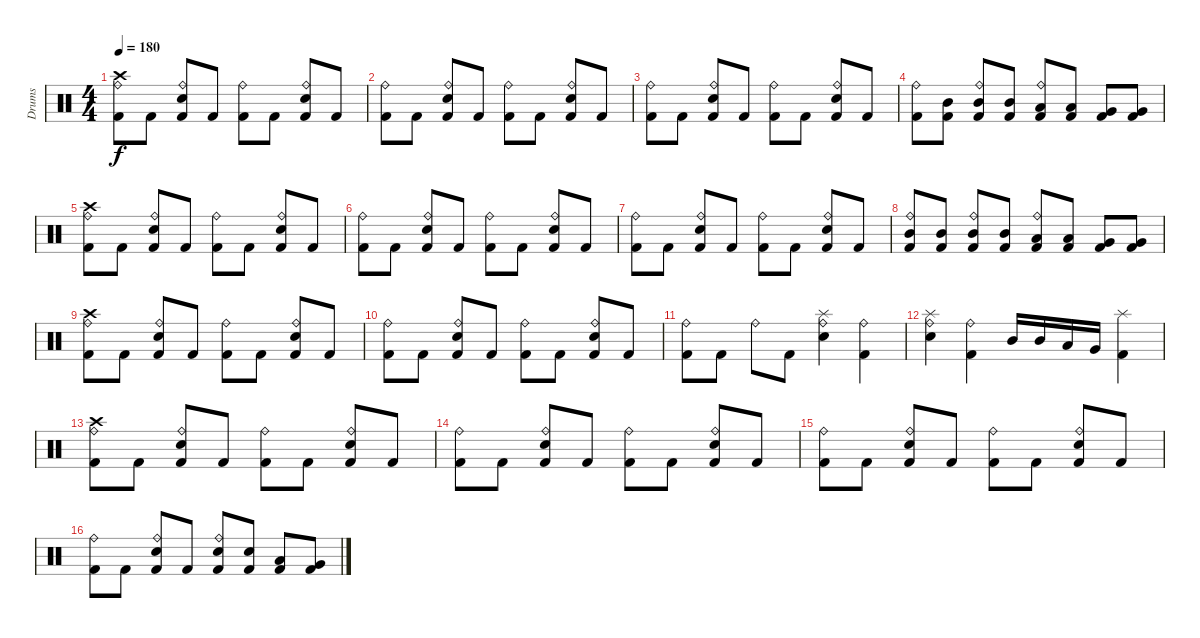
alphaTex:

\track ("Drums" "Drums") {instrument percussion}
\staff {score}
\articulation defaults
\ts (4 4)
\tempo 180
\clef neutral
\ks c
("Kick (hit) 2" "Crash high (hit)" "Ride (bell)").8{dy f} "Kick (hit) 2".8 ("Kick (hit) 2" "Electric Snare (hit)" "Ride (bell)").8 "Kick (hit) 2".8 ("Kick (hit) 2" "Ride (bell)").8 "Kick (hit) 2".8 ("Kick (hit) 2" "Electric Snare (hit)" "Ride (bell)").8 "Kick (hit) 2".8 |
("Kick (hit) 2" "Ride (bell)").8 "Kick (hit) 2".8 ("Kick (hit) 2" "Electric Snare (hit)" "Ride (bell)").8 "Kick (hit) 2".8 ("Kick (hit) 2" "Ride (bell)").8 "Kick (hit) 2".8 ("Kick (hit) 2" "Electric Snare (hit)" "Ride (bell)").8 "Kick (hit) 2".8 |
("Kick (hit) 2" "Ride (bell)").8 "Kick (hit) 2".8 ("Kick (hit) 2" "Electric Snare (hit)" "Ride (bell)").8 "Kick (hit) 2".8 ("Kick (hit) 2" "Ride (bell)").8 "Kick (hit) 2".8 ("Kick (hit) 2" "Electric Snare (hit)" "Ride (bell)").8 "Kick (hit) 2".8 |
("Kick (hit) 2" "Ride (bell)").8 ("Kick (hit) 2" "Mid Tom (hit)").8 ("Kick (hit) 2" "Mid Tom (hit)" "Ride (bell)").8 ("Kick (hit) 2" "Mid Tom (hit)").8 ("Kick (hit) 2" "Low Tom (hit)" "Ride (bell)").8 ("Kick (hit) 2" "Low Tom (hit)").8 ("Kick (hit) 2" "Very Low Tom (hit)").8 ("Kick (hit) 2" "Very Low Tom (hit)").8 |
("Kick (hit) 2" "Crash high (hit)" "Ride (bell)").8 "Kick (hit) 2".8 ("Kick (hit) 2" "Electric Snare (hit)" "Ride (bell)").8 "Kick (hit) 2".8 ("Kick (hit) 2" "Ride (bell)").8 "Kick (hit) 2".8 ("Kick (hit) 2" "Electric Snare (hit)" "Ride (bell)").8 "Kick (hit) 2".8 |
("Kick (hit) 2" "Ride (bell)").8 "Kick (hit) 2".8 ("Kick (hit) 2" "Electric Snare (hit)" "Ride (bell)").8 "Kick (hit) 2".8 ("Kick (hit) 2" "Ride (bell)").8 "Kick (hit) 2".8 ("Kick (hit) 2" "Electric Snare (hit)" "Ride (bell)").8 "Kick (hit) 2".8 |
("Kick (hit) 2" "Ride (bell)").8 "Kick (hit) 2".8 ("Kick (hit) 2" "Electric Snare (hit)" "Ride (bell)").8 "Kick (hit) 2".8 ("Kick (hit) 2" "Ride (bell)").8 "Kick (hit) 2".8 ("Kick (hit) 2" "Electric Snare (hit)" "Ride (bell)").8 "Kick (hit) 2".8 |
("Kick (hit) 2" "Mid Tom (hit)" "Ride (bell)").8 ("Kick (hit) 2" "Mid Tom (hit)").8 ("Kick (hit) 2" "Mid Tom (hit)" "Ride (bell)").8 ("Kick (hit) 2" "Mid Tom (hit)").8 ("Kick (hit) 2" "Low Tom (hit)" "Ride (bell)").8 ("Kick (hit) 2" "Low Tom (hit)").8 ("Kick (hit) 2" "Very Low Tom (hit)").8 ("Kick (hit) 2" "Very Low Tom (hit)").8 |
("Kick (hit) 2" "Crash high (hit)" "Ride (bell)").8 "Kick (hit) 2".8 ("Kick (hit) 2" "Electric Snare (hit)" "Ride (bell)").8 "Kick (hit) 2".8 ("Kick (hit) 2" "Ride (bell)").8 "Kick (hit) 2".8 ("Kick (hit) 2" "Electric Snare (hit)" "Ride (bell)").8 "Kick (hit) 2".8 |
("Kick (hit) 2" "Ride (bell)").8 "Kick (hit) 2".8 ("Kick (hit) 2" "Electric Snare (hit)" "Ride (bell)").8 "Kick (hit) 2".8 ("Kick (hit) 2" "Ride (bell)").8 "Kick (hit) 2".8 ("Kick (hit) 2" "Electric Snare (hit)" "Ride (bell)").8 "Kick (hit) 2".8 |
("Ride (bell)" "Kick (hit) 2").8 "Kick (hit) 2".8 "Ride (bell)".8 "Kick (hit) 2".8 ("Ride (bell)" "Electric Snare (hit)" "Splash (hit)").4 ("Ride (bell)" "Kick (hit) 2").4 |
("Ride (bell)" "Electric Snare (hit)" "Splash (hit)").4 ("Ride (bell)" "Kick (hit) 2").4 "Mid Tom (hit)".16 "Mid Tom (hit)".16 "Low Tom (hit)".16 "Very Low Tom (hit)".16 ("Kick (hit) 2" "Splash (hit)").4 |
("Kick (hit) 2" "Crash high (hit)" "Ride (bell)").8 "Kick (hit) 2".8 ("Kick (hit) 2" "Electric Snare (hit)" "Ride (bell)").8 "Kick (hit) 2".8 ("Kick (hit) 2" "Ride (bell)").8 "Kick (hit) 2".8 ("Kick (hit) 2" "Electric Snare (hit)" "Ride (bell)").8 "Kick (hit) 2".8 |
("Kick (hit) 2" "Ride (bell)").8 "Kick (hit) 2".8 ("Kick (hit) 2" "Electric Snare (hit)" "Ride (bell)").8 "Kick (hit) 2".8 ("Kick (hit) 2" "Ride (bell)").8 "Kick (hit) 2".8 ("Kick (hit) 2" "Electric Snare (hit)" "Ride (bell)").8 "Kick (hit) 2".8 |
("Kick (hit) 2" "Ride (bell)").8 "Kick (hit) 2".8 ("Kick (hit) 2" "Electric Snare (hit)" "Ride (bell)").8 "Kick (hit) 2".8 ("Kick (hit) 2" "Ride (bell)").8 "Kick (hit) 2".8 ("Kick (hit) 2" "Electric Snare (hit)" "Ride (bell)").8 "Kick (hit) 2".8 |
("Kick (hit) 2" "Ride (bell)").8 "Kick (hit) 2".8 ("Kick (hit) 2" "Electric Snare (hit)" "Ride (bell)").8 "Kick (hit) 2".8 ("Kick (hit) 2" "Electric Snare (hit)" "Ride (bell)").8 ("Kick (hit) 2" "Electric Snare (hit)").8 ("Kick (hit) 2" "Low Tom (hit)").8 ("Kick (hit) 2" "Very Low Tom (hit)").8
